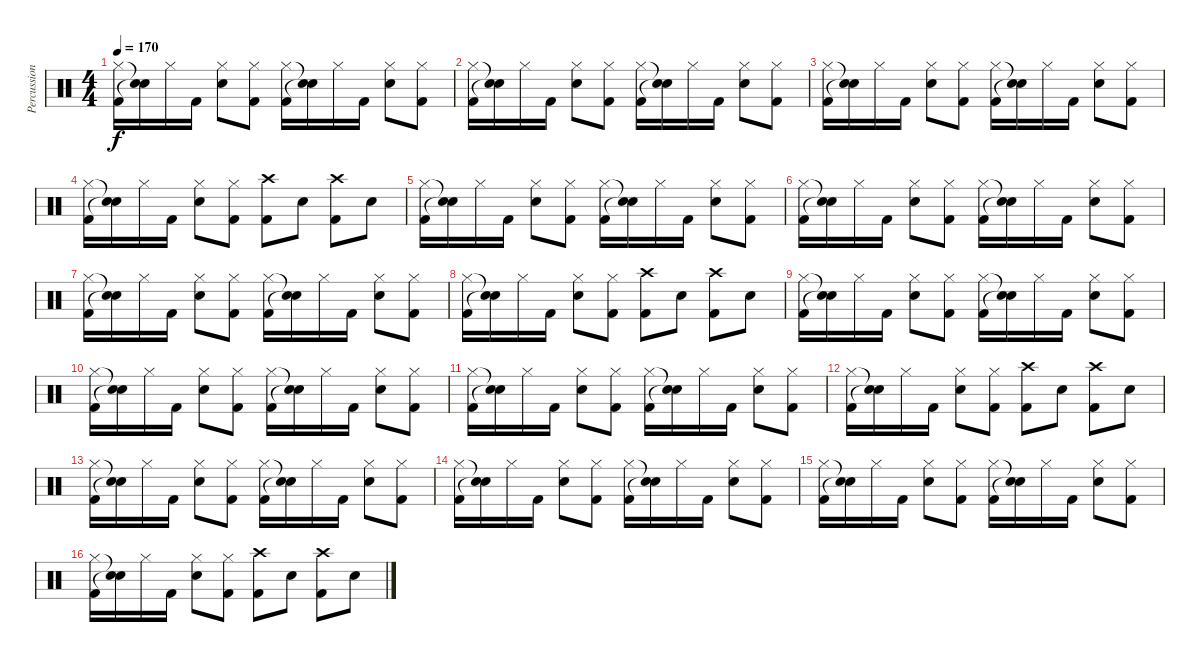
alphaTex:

\track ("Percussion" "Percussion") {instrument percussion}
\staff {score}
\articulation defaults
\ts (4 4)
\tempo 170
\clef neutral
\ks c
("Hi-Hat (closed)" "Kick (hit) 2").16{dy f} ("Snare (hit)"{t} "Snare (hit)"{t}).16 "Hi-Hat (closed)".16 "Kick (hit) 2".16 ("Hi-Hat (closed)" "Snare (hit) 2").8 ("Hi-Hat (closed)" "Kick (hit) 2").8 ("Hi-Hat (closed)" "Kick (hit) 2").16 ("Snare (hit)"{t} "Snare (hit)"{t}).16 "Hi-Hat (closed)".16 "Kick (hit) 2".16 ("Hi-Hat (closed)" "Snare (hit) 2").8 ("Hi-Hat (closed)" "Kick (hit) 2").8 |
("Hi-Hat (closed)" "Kick (hit) 2").16 ("Snare (hit)"{t} "Snare (hit)"{t}).16 "Hi-Hat (closed)".16 "Kick (hit) 2".16 ("Hi-Hat (closed)" "Snare (hit) 2").8 ("Hi-Hat (closed)" "Kick (hit) 2").8 ("Hi-Hat (closed)" "Kick (hit) 2").16 ("Snare (hit)"{t} "Snare (hit)"{t}).16 "Hi-Hat (closed)".16 "Kick (hit) 2".16 ("Hi-Hat (closed)" "Snare (hit) 2").8 ("Hi-Hat (closed)" "Kick (hit) 2").8 |
("Hi-Hat (closed)" "Kick (hit) 2").16 ("Snare (hit)"{t} "Snare (hit)"{t}).16 "Hi-Hat (closed)".16 "Kick (hit) 2".16 ("Hi-Hat (closed)" "Snare (hit) 2").8 ("Hi-Hat (closed)" "Kick (hit) 2").8 ("Hi-Hat (closed)" "Kick (hit) 2").16 ("Snare (hit)"{t} "Snare (hit)"{t}).16 "Hi-Hat (closed)".16 "Kick (hit) 2".16 ("Hi-Hat (closed)" "Snare (hit) 2").8 ("Hi-Hat (closed)" "Kick (hit) 2").8 |
("Hi-Hat (closed)" "Kick (hit) 2").16 ("Snare (hit)"{t} "Snare (hit)"{t}).16 "Hi-Hat (closed)".16 "Kick (hit) 2".16 ("Hi-Hat (closed)" "Snare (hit) 2").8 ("Hi-Hat (closed)" "Kick (hit) 2").8 ("Crash high (hit)" "Kick (hit) 2").8 "Snare (hit) 2".8 ("Crash high (hit)" "Kick (hit) 2").8 "Snare (hit) 2".8 |
("Hi-Hat (closed)" "Kick (hit) 2").16 ("Snare (hit)"{t} "Snare (hit)"{t}).16 "Hi-Hat (closed)".16 "Kick (hit) 2".16 ("Hi-Hat (closed)" "Snare (hit) 2").8 ("Hi-Hat (closed)" "Kick (hit) 2").8 ("Hi-Hat (closed)" "Kick (hit) 2").16 ("Snare (hit)"{t} "Snare (hit)"{t}).16 "Hi-Hat (closed)".16 "Kick (hit) 2".16 ("Hi-Hat (closed)" "Snare (hit) 2").8 ("Hi-Hat (closed)" "Kick (hit) 2").8 |
("Hi-Hat (closed)" "Kick (hit) 2").16 ("Snare (hit)"{t} "Snare (hit)"{t}).16 "Hi-Hat (closed)".16 "Kick (hit) 2".16 ("Hi-Hat (closed)" "Snare (hit) 2").8 ("Hi-Hat (closed)" "Kick (hit) 2").8 ("Hi-Hat (closed)" "Kick (hit) 2").16 ("Snare (hit)"{t} "Snare (hit)"{t}).16 "Hi-Hat (closed)".16 "Kick (hit) 2".16 ("Hi-Hat (closed)" "Snare (hit) 2").8 ("Hi-Hat (closed)" "Kick (hit) 2").8 |
("Hi-Hat (closed)" "Kick (hit) 2").16 ("Snare (hit)"{t} "Snare (hit)"{t}).16 "Hi-Hat (closed)".16 "Kick (hit) 2".16 ("Hi-Hat (closed)" "Snare (hit) 2").8 ("Hi-Hat (closed)" "Kick (hit) 2").8 ("Hi-Hat (closed)" "Kick (hit) 2").16 ("Snare (hit)"{t} "Snare (hit)"{t}).16 "Hi-Hat (closed)".16 "Kick (hit) 2".16 ("Hi-Hat (closed)" "Snare (hit) 2").8 ("Hi-Hat (closed)" "Kick (hit) 2").8 |
("Hi-Hat (closed)" "Kick (hit) 2").16 ("Snare (hit)"{t} "Snare (hit)"{t}).16 "Hi-Hat (closed)".16 "Kick (hit) 2".16 ("Hi-Hat (closed)" "Snare (hit) 2").8 ("Hi-Hat (closed)" "Kick (hit) 2").8 ("Crash high (hit)" "Kick (hit) 2").8 "Snare (hit) 2".8 ("Crash high (hit)" "Kick (hit) 2").8 "Snare (hit) 2".8 |
("Hi-Hat (closed)" "Kick (hit) 2").16 ("Snare (hit)"{t} "Snare (hit)"{t}).16 "Hi-Hat (closed)".16 "Kick (hit) 2".16 ("Hi-Hat (closed)" "Snare (hit) 2").8 ("Hi-Hat (closed)" "Kick (hit) 2").8 ("Hi-Hat (closed)" "Kick (hit) 2").16 ("Snare (hit)"{t} "Snare (hit)"{t}).16 "Hi-Hat (closed)".16 "Kick (hit) 2".16 ("Hi-Hat (closed)" "Snare (hit) 2").8 ("Hi-Hat (closed)" "Kick (hit) 2").8 |
("Hi-Hat (closed)" "Kick (hit) 2").16 ("Snare (hit)"{t} "Snare (hit)"{t}).16 "Hi-Hat (closed)".16 "Kick (hit) 2".16 ("Hi-Hat (closed)" "Snare (hit) 2").8 ("Hi-Hat (closed)" "Kick (hit) 2").8 ("Hi-Hat (closed)" "Kick (hit) 2").16 ("Snare (hit)"{t} "Snare (hit)"{t}).16 "Hi-Hat (closed)".16 "Kick (hit) 2".16 ("Hi-Hat (closed)" "Snare (hit) 2").8 ("Hi-Hat (closed)" "Kick (hit) 2").8 |
("Hi-Hat (closed)" "Kick (hit) 2").16 ("Snare (hit)"{t} "Snare (hit)"{t}).16 "Hi-Hat (closed)".16 "Kick (hit) 2".16 ("Hi-Hat (closed)" "Snare (hit) 2").8 ("Hi-Hat (closed)" "Kick (hit) 2").8 ("Hi-Hat (closed)" "Kick (hit) 2").16 ("Snare (hit)"{t} "Snare (hit)"{t}).16 "Hi-Hat (closed)".16 "Kick (hit) 2".16 ("Hi-Hat (closed)" "Snare (hit) 2").8 ("Hi-Hat (closed)" "Kick (hit) 2").8 |
("Hi-Hat (closed)" "Kick (hit) 2").16 ("Snare (hit)"{t} "Snare (hit)"{t}).16 "Hi-Hat (closed)".16 "Kick (hit) 2".16 ("Hi-Hat (closed)" "Snare (hit) 2").8 ("Hi-Hat (closed)" "Kick (hit) 2").8 ("Crash high (hit)" "Kick (hit) 2").8 "Snare (hit) 2".8 ("Crash high (hit)" "Kick (hit) 2").8 "Snare (hit) 2".8 |
("Hi-Hat (closed)" "Kick (hit) 2").16 ("Snare (hit)"{t} "Snare (hit)"{t}).16 "Hi-Hat (closed)".16 "Kick (hit) 2".16 ("Hi-Hat (closed)" "Snare (hit) 2").8 ("Hi-Hat (closed)" "Kick (hit) 2").8 ("Hi-Hat (closed)" "Kick (hit) 2").16 ("Snare (hit)"{t} "Snare (hit)"{t}).16 "Hi-Hat (closed)".16 "Kick (hit) 2".16 ("Hi-Hat (closed)" "Snare (hit) 2").8 ("Hi-Hat (closed)" "Kick (hit) 2").8 |
("Hi-Hat (closed)" "Kick (hit) 2").16 ("Snare (hit)"{t} "Snare (hit)"{t}).16 "Hi-Hat (closed)".16 "Kick (hit) 2".16 ("Hi-Hat (closed)" "Snare (hit) 2").8 ("Hi-Hat (closed)" "Kick (hit) 2").8 ("Hi-Hat (closed)" "Kick (hit) 2").16 ("Snare (hit)"{t} "Snare (hit)"{t}).16 "Hi-Hat (closed)".16 "Kick (hit) 2".16 ("Hi-Hat (closed)" "Snare (hit) 2").8 ("Hi-Hat (closed)" "Kick (hit) 2").8 |
("Hi-Hat (closed)" "Kick (hit) 2").16 ("Snare (hit)"{t} "Snare (hit)"{t}).16 "Hi-Hat (closed)".16 "Kick (hit) 2".16 ("Hi-Hat (closed)" "Snare (hit) 2").8 ("Hi-Hat (closed)" "Kick (hit) 2").8 ("Hi-Hat (closed)" "Kick (hit) 2").16 ("Snare (hit)"{t} "Snare (hit)"{t}).16 "Hi-Hat (closed)".16 "Kick (hit) 2".16 ("Hi-Hat (closed)" "Snare (hit) 2").8 ("Hi-Hat (closed)" "Kick (hit) 2").8 |
("Hi-Hat (closed)" "Kick (hit) 2").16 ("Snare (hit)"{t} "Snare (hit)"{t}).16 "Hi-Hat (closed)".16 "Kick (hit) 2".16 ("Hi-Hat (closed)" "Snare (hit) 2").8 ("Hi-Hat (closed)" "Kick (hit) 2").8 ("Crash high (hit)" "Kick (hit) 2").8 "Snare (hit) 2".8 ("Crash high (hit)" "Kick (hit) 2").8 "Snare (hit) 2".8
